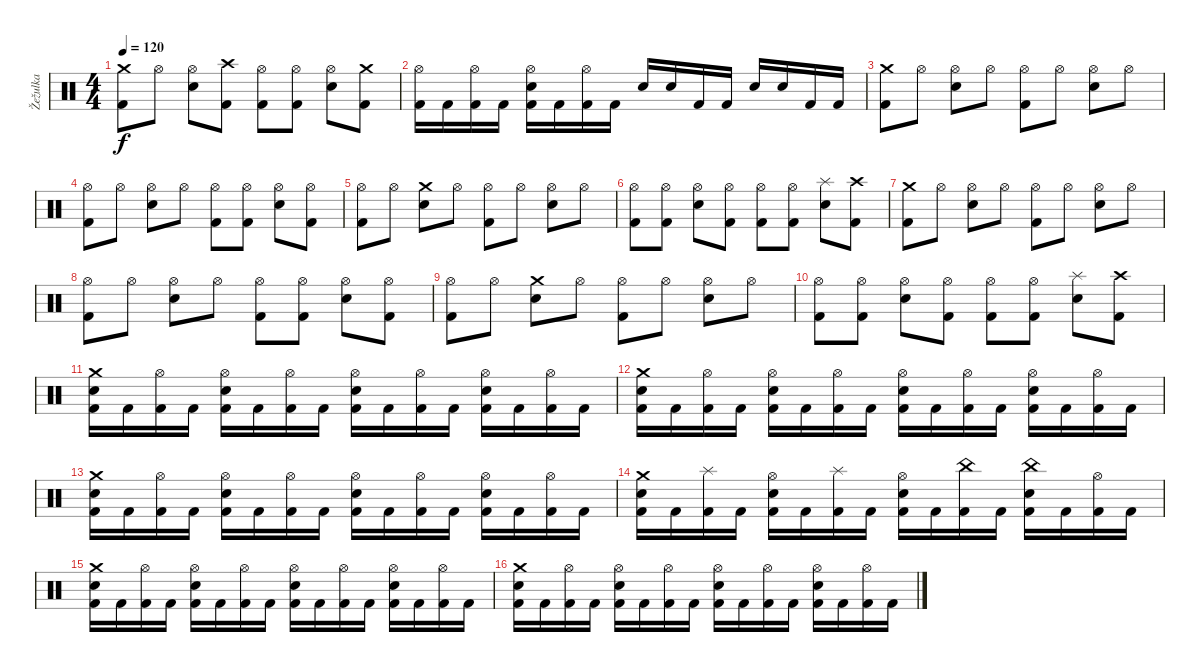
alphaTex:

\track ("Žežulka" "Žežulka") {instrument percussion}
\staff {score}
\articulation defaults
\ts (4 4)
\tempo 120
\clef neutral
\ks c
("Crash medium (hit)" "Kick (hit) 2").8{dy f} "Hi-Hat (open)".8 ("Hi-Hat (open)" "Snare (hit) 2").8 ("Crash high (hit)" "Kick (hit) 2").8 ("Hi-Hat (open)" "Kick (hit) 2").8 ("Hi-Hat (open)" "Kick (hit) 2").8 ("Hi-Hat (open)" "Snare (hit) 2").8 ("Crash medium (hit)" "Kick (hit) 2").8 |
("Hi-Hat (open)" "Kick (hit) 2").16 "Kick (hit) 2".16 ("Hi-Hat (open)" "Kick (hit) 2").16 "Kick (hit) 2".16 ("Hi-Hat (open)" "Snare (hit) 2" "Kick (hit) 2").16 "Kick (hit) 2".16 ("Hi-Hat (open)" "Kick (hit) 2").16 "Kick (hit) 2".16 "Snare (hit) 2".16 "Snare (hit) 2".16 "Kick (hit) 2".16 "Kick (hit) 2".16 "Snare (hit) 2".16 "Snare (hit) 2".16 "Kick (hit) 2".16 "Kick (hit) 2".16 |
("Crash medium (hit)" "Kick (hit) 2").8 "Hi-Hat (open)".8 ("Hi-Hat (open)" "Snare (hit) 2").8 "Hi-Hat (open)".8 ("Hi-Hat (open)" "Kick (hit) 2").8 "Hi-Hat (open)".8 ("Hi-Hat (open)" "Snare (hit) 2").8 "Hi-Hat (open)".8 |
("Hi-Hat (open)" "Kick (hit) 2").8 "Hi-Hat (open)".8 ("Hi-Hat (open)" "Snare (hit) 2").8 "Hi-Hat (open)".8 ("Hi-Hat (open)" "Kick (hit) 2").8 ("Hi-Hat (open)" "Kick (hit) 2").8 ("Hi-Hat (open)" "Snare (hit) 2").8 ("Hi-Hat (open)" "Kick (hit) 2").8 |
("Hi-Hat (open)" "Kick (hit) 2").8 "Hi-Hat (open)".8 ("Crash medium (hit)" "Snare (hit) 2").8 "Hi-Hat (open)".8 ("Hi-Hat (open)" "Kick (hit) 2").8 "Hi-Hat (open)".8 ("Hi-Hat (open)" "Snare (hit) 2").8 "Hi-Hat (open)".8 |
("Hi-Hat (open)" "Kick (hit) 2").8 ("Hi-Hat (open)" "Kick (hit) 2").8 ("Hi-Hat (open)" "Snare (hit) 2").8 ("Hi-Hat (open)" "Kick (hit) 2").8 ("Hi-Hat (open)" "Kick (hit) 2").8 ("Hi-Hat (open)" "Kick (hit) 2").8 ("Splash (hit)" "Snare (hit) 2").8 ("Crash high (hit)" "Kick (hit) 2").8 |
("Crash medium (hit)" "Kick (hit) 2").8 "Hi-Hat (open)".8 ("Hi-Hat (open)" "Snare (hit) 2").8 "Hi-Hat (open)".8 ("Hi-Hat (open)" "Kick (hit) 2").8 "Hi-Hat (open)".8 ("Hi-Hat (open)" "Snare (hit) 2").8 "Hi-Hat (open)".8 |
("Hi-Hat (open)" "Kick (hit) 2").8 "Hi-Hat (open)".8 ("Hi-Hat (open)" "Snare (hit) 2").8 "Hi-Hat (open)".8 ("Hi-Hat (open)" "Kick (hit) 2").8 ("Hi-Hat (open)" "Kick (hit) 2").8 ("Hi-Hat (open)" "Snare (hit) 2").8 ("Hi-Hat (open)" "Kick (hit) 2").8 |
("Hi-Hat (open)" "Kick (hit) 2").8 "Hi-Hat (open)".8 ("Crash medium (hit)" "Snare (hit) 2").8 "Hi-Hat (open)".8 ("Hi-Hat (open)" "Kick (hit) 2").8 "Hi-Hat (open)".8 ("Hi-Hat (open)" "Snare (hit) 2").8 "Hi-Hat (open)".8 |
("Hi-Hat (open)" "Kick (hit) 2").8 ("Hi-Hat (open)" "Kick (hit) 2").8 ("Hi-Hat (open)" "Snare (hit) 2").8 ("Hi-Hat (open)" "Kick (hit) 2").8 ("Hi-Hat (open)" "Kick (hit) 2").8 ("Hi-Hat (open)" "Kick (hit) 2").8 ("Splash (hit)" "Snare (hit) 2").8 ("Crash high (hit)" "Kick (hit) 2").8 |
("Crash medium (hit)" "Snare (hit) 2" "Kick (hit) 2").16 "Kick (hit) 2".16 ("Hi-Hat (open)" "Kick (hit) 2").16 "Kick (hit) 2".16 ("Hi-Hat (open)" "Snare (hit) 2" "Kick (hit) 2").16 "Kick (hit) 2".16 ("Hi-Hat (open)" "Kick (hit) 2").16 "Kick (hit) 2".16 ("Hi-Hat (open)" "Snare (hit) 2" "Kick (hit) 2").16 "Kick (hit) 2".16 ("Hi-Hat (open)" "Kick (hit) 2").16 "Kick (hit) 2".16 ("Hi-Hat (open)" "Snare (hit) 2" "Kick (hit) 2").16 "Kick (hit) 2".16 ("Hi-Hat (open)" "Kick (hit) 2").16 "Kick (hit) 2".16 |
("Crash medium (hit)" "Snare (hit) 2" "Kick (hit) 2").16 "Kick (hit) 2".16 ("Hi-Hat (open)" "Kick (hit) 2").16 "Kick (hit) 2".16 ("Hi-Hat (open)" "Snare (hit) 2" "Kick (hit) 2").16 "Kick (hit) 2".16 ("Hi-Hat (open)" "Kick (hit) 2").16 "Kick (hit) 2".16 ("Hi-Hat (open)" "Snare (hit) 2" "Kick (hit) 2").16 "Kick (hit) 2".16 ("Hi-Hat (open)" "Kick (hit) 2").16 "Kick (hit) 2".16 ("Hi-Hat (open)" "Snare (hit) 2" "Kick (hit) 2").16 "Kick (hit) 2".16 ("Hi-Hat (open)" "Kick (hit) 2").16 "Kick (hit) 2".16 |
("Crash medium (hit)" "Snare (hit) 2" "Kick (hit) 2").16 "Kick (hit) 2".16 ("Hi-Hat (open)" "Kick (hit) 2").16 "Kick (hit) 2".16 ("Hi-Hat (open)" "Snare (hit) 2" "Kick (hit) 2").16 "Kick (hit) 2".16 ("Hi-Hat (open)" "Kick (hit) 2").16 "Kick (hit) 2".16 ("Hi-Hat (open)" "Snare (hit) 2" "Kick (hit) 2").16 "Kick (hit) 2".16 ("Hi-Hat (open)" "Kick (hit) 2").16 "Kick (hit) 2".16 ("Hi-Hat (open)" "Snare (hit) 2" "Kick (hit) 2").16 "Kick (hit) 2".16 ("Hi-Hat (open)" "Kick (hit) 2").16 "Kick (hit) 2".16 |
("Crash medium (hit)" "Snare (hit) 2" "Kick (hit) 2").16 "Kick (hit) 2".16 ("Splash (hit)" "Kick (hit) 2").16 "Kick (hit) 2".16 ("Hi-Hat (open)" "Snare (hit) 2" "Kick (hit) 2").16 "Kick (hit) 2".16 ("Splash (hit)" "Kick (hit) 2").16 "Kick (hit) 2".16 ("Hi-Hat (open)" "Snare (hit) 2" "Kick (hit) 2").16 "Kick (hit) 2".16 ("China (hit)" "Kick (hit) 2").16 "Kick (hit) 2".16 ("China (hit)" "Snare (hit) 2" "Kick (hit) 2").16 "Kick (hit) 2".16 ("Hi-Hat (open)" "Kick (hit) 2").16 "Kick (hit) 2".16 |
("Crash medium (hit)" "Snare (hit) 2" "Kick (hit) 2").16 "Kick (hit) 2".16 ("Hi-Hat (open)" "Kick (hit) 2").16 "Kick (hit) 2".16 ("Hi-Hat (open)" "Snare (hit) 2" "Kick (hit) 2").16 "Kick (hit) 2".16 ("Hi-Hat (open)" "Kick (hit) 2").16 "Kick (hit) 2".16 ("Hi-Hat (open)" "Snare (hit) 2" "Kick (hit) 2").16 "Kick (hit) 2".16 ("Hi-Hat (open)" "Kick (hit) 2").16 "Kick (hit) 2".16 ("Hi-Hat (open)" "Snare (hit) 2" "Kick (hit) 2").16 "Kick (hit) 2".16 ("Hi-Hat (open)" "Kick (hit) 2").16 "Kick (hit) 2".16 |
("Crash medium (hit)" "Snare (hit) 2" "Kick (hit) 2").16 "Kick (hit) 2".16 ("Hi-Hat (open)" "Kick (hit) 2").16 "Kick (hit) 2".16 ("Hi-Hat (open)" "Snare (hit) 2" "Kick (hit) 2").16 "Kick (hit) 2".16 ("Hi-Hat (open)" "Kick (hit) 2").16 "Kick (hit) 2".16 ("Hi-Hat (open)" "Snare (hit) 2" "Kick (hit) 2").16 "Kick (hit) 2".16 ("Hi-Hat (open)" "Kick (hit) 2").16 "Kick (hit) 2".16 ("Hi-Hat (open)" "Snare (hit) 2" "Kick (hit) 2").16 "Kick (hit) 2".16 ("Hi-Hat (open)" "Kick (hit) 2").16 "Kick (hit) 2".16
